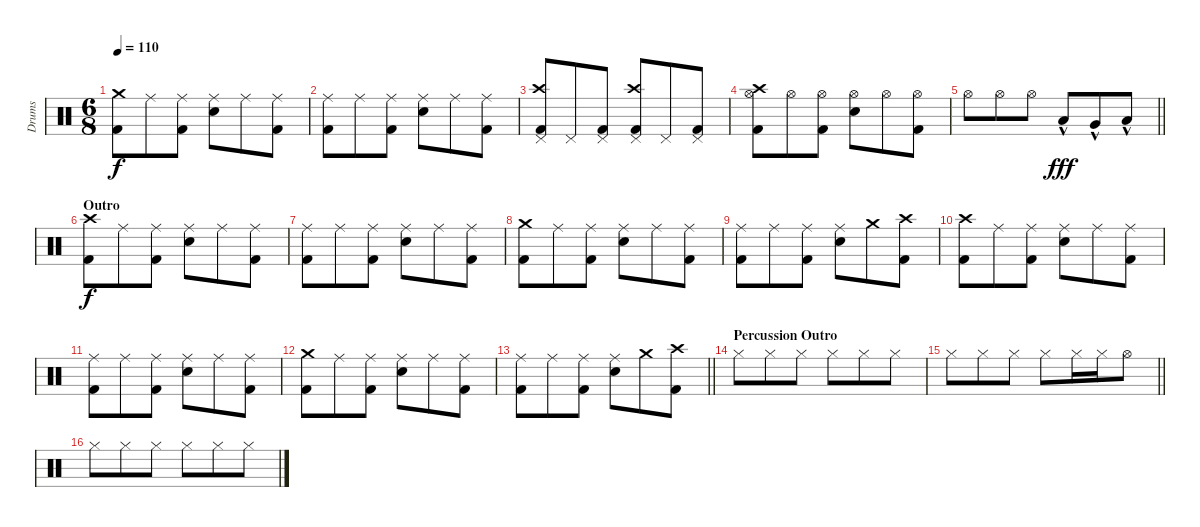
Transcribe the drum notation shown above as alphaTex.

\track ("Drums" "Drums") {instrument percussion}
\staff {score}
\articulation defaults
\ts (6 8)
\tempo 110
\clef neutral
\ks c
("Crash medium (hit)" "Kick (hit) 2").8{dy f} "Ride (middle)".8 ("Ride (middle)" "Kick (hit) 2").8 ("Ride (middle)" "Snare (hit) 2").8 "Ride (middle)".8 ("Ride (middle)" "Kick (hit) 2").8 |
("Ride (middle)" "Kick (hit) 2").8 "Ride (middle)".8 ("Ride (middle)" "Kick (hit) 2").8 ("Ride (middle)" "Snare (hit) 2").8 "Ride (middle)".8 ("Ride (middle)" "Kick (hit) 2").8 |
("Crash high (hit)" "Pedal Hi-Hat (hit)" "Kick (hit) 2").8 "Pedal Hi-Hat (hit)".8 ("Pedal Hi-Hat (hit)" "Kick (hit) 2").8 ("Crash high (hit)" "Pedal Hi-Hat (hit)" "Kick (hit) 2").8 "Pedal Hi-Hat (hit)".8 ("Pedal Hi-Hat (hit)" "Kick (hit) 2").8 |
("Crash high (hit)" "Hi-Hat (open)" "Kick (hit) 2").8 "Hi-Hat (open)".8 ("Hi-Hat (open)" "Kick (hit) 2").8 ("Hi-Hat (open)" "Snare (hit) 2").8 "Hi-Hat (open)".8 ("Hi-Hat (open)" "Kick (hit) 2").8 |
\barLineRight lightlight "Hi-Hat (open)".8 "Hi-Hat (open)".8 "Hi-Hat (open)".8 "Low Tom (hit)"{hac}.8{dy fff} "Very Low Tom (hit)"{hac}.8 "Low Floor Tom (hit)"{hac}.8
|
\section ("" "Outro")
("Crash high (hit)" "Kick (hit) 2").8{dy f} "Ride (middle)".8 ("Ride (middle)" "Kick (hit) 2").8 ("Ride (middle)" "Snare (hit) 2").8 "Ride (middle)".8 ("Ride (middle)" "Kick (hit) 2").8 |
("Ride (middle)" "Kick (hit) 2").8 "Ride (middle)".8 ("Ride (middle)" "Kick (hit) 2").8 ("Ride (middle)" "Snare (hit) 2").8 "Ride (middle)".8 ("Ride (middle)" "Kick (hit) 2").8 |
("Crash medium (hit)" "Kick (hit) 2").8 "Ride (middle)".8 ("Ride (middle)" "Kick (hit) 2").8 ("Ride (middle)" "Snare (hit) 2").8 "Ride (middle)".8 ("Ride (middle)" "Kick (hit) 2").8 |
("Ride (middle)" "Kick (hit) 2").8 "Ride (middle)".8 ("Ride (middle)" "Kick (hit) 2").8 ("Ride (middle)" "Snare (hit) 2").8 "Crash medium (hit)".8 ("Crash high (hit)" "Kick (hit) 2").8 |
("Crash high (hit)" "Kick (hit) 2").8 "Ride (middle)".8 ("Ride (middle)" "Kick (hit) 2").8 ("Ride (middle)" "Snare (hit) 2").8 "Ride (middle)".8 ("Ride (middle)" "Kick (hit) 2").8 |
("Ride (middle)" "Kick (hit) 2").8 "Ride (middle)".8 ("Ride (middle)" "Kick (hit) 2").8 ("Ride (middle)" "Snare (hit) 2").8 "Ride (middle)".8 ("Ride (middle)" "Kick (hit) 2").8 |
("Crash medium (hit)" "Kick (hit) 2").8 "Ride (middle)".8 ("Ride (middle)" "Kick (hit) 2").8 ("Ride (middle)" "Snare (hit) 2").8 "Ride (middle)".8 ("Ride (middle)" "Kick (hit) 2").8 |
\barLineRight lightlight
("Ride (middle)" "Kick (hit) 2").8 "Ride (middle)".8 ("Ride (middle)" "Kick (hit) 2").8 ("Ride (middle)" "Snare (hit) 2").8 "Crash medium (hit)".8 ("Crash high (hit)" "Kick (hit) 2").8 |
\section ("" "Percussion Outro")
"Hi-Hat (closed)".8 "Hi-Hat (closed)".8 "Hi-Hat (closed)".8 "Hi-Hat (closed)".8 "Hi-Hat (closed)".8 "Hi-Hat (closed)".8 |
\barLineRight lightlight "Hi-Hat (closed)".8 "Hi-Hat (closed)".8 "Hi-Hat (closed)".8 "Hi-Hat (closed)".8 "Hi-Hat (closed)".16 "Hi-Hat (closed)".16 "Hi-Hat (open)".8
|
"Hi-Hat (closed)".8 "Hi-Hat (closed)".8 "Hi-Hat (closed)".8 "Hi-Hat (closed)".8 "Hi-Hat (closed)".8 "Hi-Hat (closed)".8
